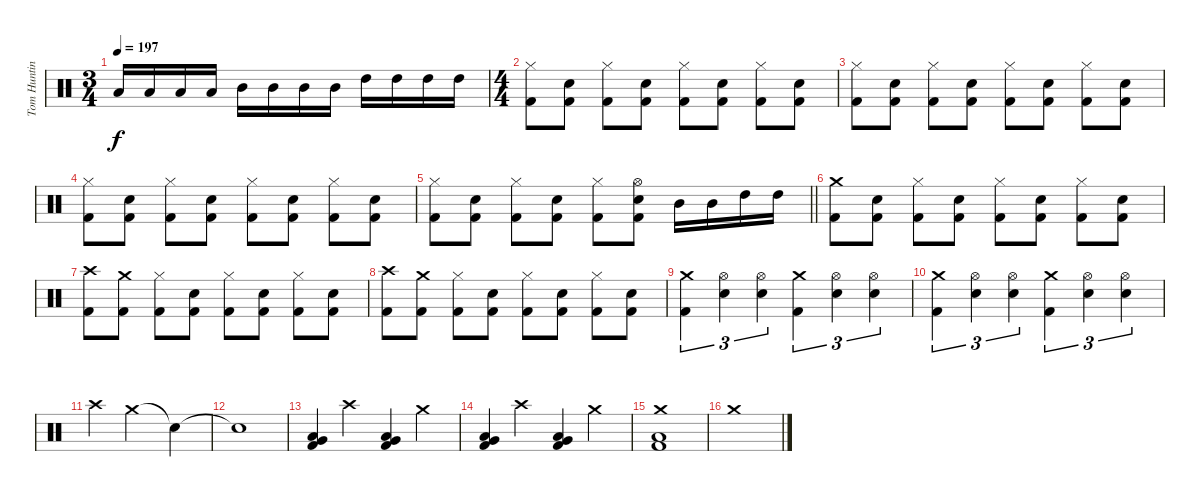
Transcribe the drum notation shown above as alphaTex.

\track ("Tom Hunting" "Tom Huntin") {instrument percussion}
\staff {score}
\articulation defaults
\ts (3 4)
\tempo 197
\clef neutral
\ks c "Low Tom (hit)".16{dy f} "Low Tom (hit)".16 "Low Tom (hit)".16 "Low Tom (hit)".16 "Mid Tom (hit)".16 "Mid Tom (hit)".16 "Mid Tom (hit)".16 "Mid Tom (hit)".16 "High Tom (hit)".16 "High Tom (hit)".16 "High Tom (hit)".16 "High Tom (hit)".16
|
\ts (4 4)
("Hi-Hat (closed)" "Kick (hit) 2").8 ("Snare (hit) 2" "Kick (hit) 2").8 ("Hi-Hat (closed)" "Kick (hit) 2").8 ("Snare (hit) 2" "Kick (hit) 2").8 ("Hi-Hat (closed)" "Kick (hit) 2").8 ("Snare (hit) 2" "Kick (hit) 2").8 ("Hi-Hat (closed)" "Kick (hit) 2").8 ("Snare (hit) 2" "Kick (hit) 2").8 |
("Hi-Hat (closed)" "Kick (hit) 2").8 ("Snare (hit) 2" "Kick (hit) 2").8 ("Hi-Hat (closed)" "Kick (hit) 2").8 ("Snare (hit) 2" "Kick (hit) 2").8 ("Hi-Hat (closed)" "Kick (hit) 2").8 ("Snare (hit) 2" "Kick (hit) 2").8 ("Hi-Hat (closed)" "Kick (hit) 2").8 ("Snare (hit) 2" "Kick (hit) 2").8 |
("Hi-Hat (closed)" "Kick (hit) 2").8 ("Snare (hit) 2" "Kick (hit) 2").8 ("Hi-Hat (closed)" "Kick (hit) 2").8 ("Snare (hit) 2" "Kick (hit) 2").8 ("Hi-Hat (closed)" "Kick (hit) 2").8 ("Snare (hit) 2" "Kick (hit) 2").8 ("Hi-Hat (closed)" "Kick (hit) 2").8 ("Snare (hit) 2" "Kick (hit) 2").8 |
\barLineRight lightlight
("Hi-Hat (closed)" "Kick (hit) 2").8 ("Snare (hit) 2" "Kick (hit) 2").8 ("Hi-Hat (closed)" "Kick (hit) 2").8 ("Snare (hit) 2" "Kick (hit) 2").8 ("Hi-Hat (closed)" "Kick (hit) 2").8 ("Hi-Hat (open)" "Snare (hit) 2" "Kick (hit) 2").8 "Mid Tom (hit)".16 "Mid Tom (hit)".16 "High Tom (hit)".16 "High Tom (hit)".16 |
("Crash medium (hit)" "Kick (hit) 2").8 ("Snare (hit) 2" "Kick (hit) 2").8 ("Hi-Hat (closed)" "Kick (hit) 2").8 ("Snare (hit) 2" "Kick (hit) 2").8 ("Hi-Hat (closed)" "Kick (hit) 2").8 ("Snare (hit) 2" "Kick (hit) 2").8 ("Hi-Hat (closed)" "Kick (hit) 2").8 ("Snare (hit) 2" "Kick (hit) 2").8 |
("Crash high (hit)" "Kick (hit) 2").8 ("Crash medium (hit)" "Kick (hit) 2").8 ("Hi-Hat (closed)" "Kick (hit) 2").8 ("Snare (hit) 2" "Kick (hit) 2").8 ("Hi-Hat (closed)" "Kick (hit) 2").8 ("Snare (hit) 2" "Kick (hit) 2").8 ("Hi-Hat (closed)" "Kick (hit) 2").8 ("Snare (hit) 2" "Kick (hit) 2").8 |
("Crash high (hit)" "Kick (hit) 2").8 ("Crash medium (hit)" "Kick (hit) 2").8 ("Hi-Hat (closed)" "Kick (hit) 2").8 ("Snare (hit) 2" "Kick (hit) 2").8 ("Hi-Hat (closed)" "Kick (hit) 2").8 ("Snare (hit) 2" "Kick (hit) 2").8 ("Hi-Hat (closed)" "Kick (hit) 2").8 ("Snare (hit) 2" "Kick (hit) 2").8 |
("Crash medium (hit)" "Kick (hit) 2").4{tu (3 2)} ("Hi-Hat (open)" "Snare (hit) 2").4{tu (3 2)} ("Hi-Hat (open)" "Snare (hit) 2").4{tu (3 2)} ("Crash medium (hit)" "Kick (hit) 2").4{tu (3 2)} ("Hi-Hat (open)" "Snare (hit) 2").4{tu (3 2)} ("Hi-Hat (open)" "Snare (hit) 2").4{tu (3 2)} |
("Crash medium (hit)" "Kick (hit) 2").4{tu (3 2)} ("Hi-Hat (open)" "Snare (hit) 2").4{tu (3 2)} ("Hi-Hat (open)" "Snare (hit) 2").4{tu (3 2)} ("Crash medium (hit)" "Kick (hit) 2").4{tu (3 2)} ("Hi-Hat (open)" "Snare (hit) 2").4{tu (3 2)} ("Hi-Hat (open)" "Snare (hit) 2").4{tu (3 2)} |
"Crash high (hit)".4 "Crash medium (hit)".2 "Snare (hit)"{t}.4 |
"Snare (hit)"{t}.1 |
("Very Low Tom (hit)" "Low Floor Tom (hit)" "Kick (hit) 2").4 "Crash high (hit)".4 ("Very Low Tom (hit)" "Low Floor Tom (hit)" "Kick (hit) 2").4 "Crash medium (hit)".4 |
("Very Low Tom (hit)" "Low Floor Tom (hit)" "Kick (hit) 2").4 "Crash high (hit)".4 ("Low Floor Tom (hit)" "Very Low Tom (hit)" "Kick (hit) 2").4 "Crash medium (hit)".4 |
("Crash medium (hit)" "Low Floor Tom (hit)" "Kick (hit) 2").1 |
"Crash medium (hit)".1
